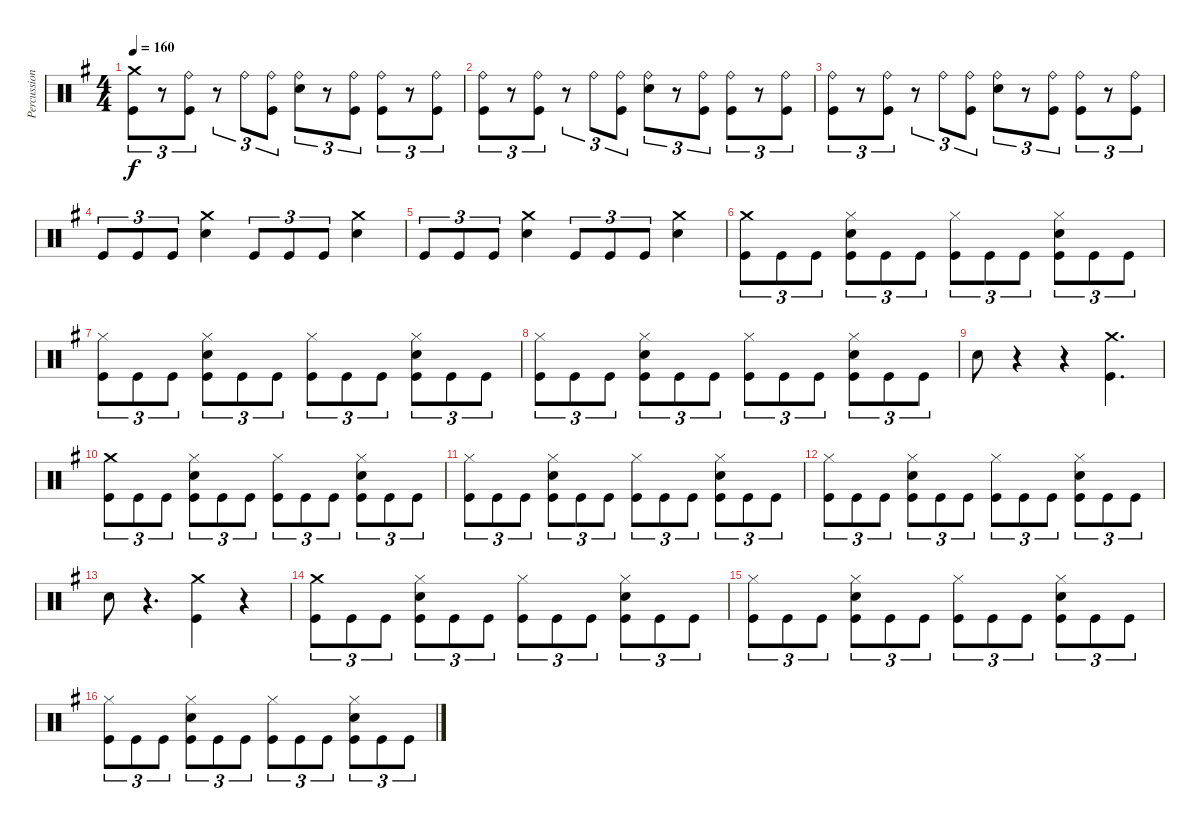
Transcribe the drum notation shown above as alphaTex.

\track ("Percussions" "Percussion") {instrument percussion}
\staff {score}
\articulation defaults
\ts (4 4)
\tempo 160
\clef neutral
\ks g
("Kick (hit)" "Crash medium (hit)").8{tu (3 2) dy f} r.8{tu (3 2)} ("Kick (hit)" "Ride (bell)").8{tu (3 2)} r.8{tu (3 2)} "Ride (bell)".8{tu (3 2)} ("Kick (hit)" "Ride (bell)").8{tu (3 2)} ("Electric Snare (hit)" "Ride (bell)").8{tu (3 2)} r.8{tu (3 2)} ("Kick (hit)" "Ride (bell)").8{tu (3 2)} ("Kick (hit)" "Ride (bell)").8{tu (3 2)} r.8{tu (3 2)} ("Kick (hit)" "Ride (bell)").8{tu (3 2)} |
("Kick (hit)" "Ride (bell)").8{tu (3 2)} r.8{tu (3 2)} ("Kick (hit)" "Ride (bell)").8{tu (3 2)} r.8{tu (3 2)} "Ride (bell)".8{tu (3 2)} ("Kick (hit)" "Ride (bell)").8{tu (3 2)} ("Electric Snare (hit)" "Ride (bell)").8{tu (3 2)} r.8{tu (3 2)} ("Kick (hit)" "Ride (bell)").8{tu (3 2)} ("Kick (hit)" "Ride (bell)").8{tu (3 2)} r.8{tu (3 2)} ("Kick (hit)" "Ride (bell)").8{tu (3 2)} |
("Kick (hit)" "Ride (bell)").8{tu (3 2)} r.8{tu (3 2)} ("Kick (hit)" "Ride (bell)").8{tu (3 2)} r.8{tu (3 2)} "Ride (bell)".8{tu (3 2)} ("Kick (hit)" "Ride (bell)").8{tu (3 2)} ("Electric Snare (hit)" "Ride (bell)").8{tu (3 2)} r.8{tu (3 2)} ("Kick (hit)" "Ride (bell)").8{tu (3 2)} ("Kick (hit)" "Ride (bell)").8{tu (3 2)} r.8{tu (3 2)} ("Kick (hit)" "Ride (bell)").8{tu (3 2)} |
"Kick (hit)".8{tu (3 2)} "Kick (hit)".8{tu (3 2)} "Kick (hit)".8{tu (3 2)} ("Electric Snare (hit)" "Crash medium (hit)").4 "Kick (hit)".8{tu (3 2)} "Kick (hit)".8{tu (3 2)} "Kick (hit)".8{tu (3 2)} ("Electric Snare (hit)" "Crash medium (hit)").4 |
"Kick (hit)".8{tu (3 2)} "Kick (hit)".8{tu (3 2)} "Kick (hit)".8{tu (3 2)} ("Electric Snare (hit)" "Crash medium (hit)").4 "Kick (hit)".8{tu (3 2)} "Kick (hit)".8{tu (3 2)} "Kick (hit)".8{tu (3 2)} ("Electric Snare (hit)" "Crash medium (hit)").4 |
("Kick (hit)" "Crash medium (hit)").8{tu (3 2)} "Kick (hit)".8{tu (3 2)} "Kick (hit)".8{tu (3 2)} ("Kick (hit)" "Electric Snare (hit)" "Hi-Hat (closed)").8{tu (3 2)} "Kick (hit)".8{tu (3 2)} "Kick (hit)".8{tu (3 2)} ("Kick (hit)" "Hi-Hat (closed)").8{tu (3 2)} "Kick (hit)".8{tu (3 2)} "Kick (hit)".8{tu (3 2)} ("Kick (hit)" "Electric Snare (hit)" "Hi-Hat (closed)").8{tu (3 2)} "Kick (hit)".8{tu (3 2)} "Kick (hit)".8{tu (3 2)} |
("Kick (hit)" "Hi-Hat (closed)").8{tu (3 2)} "Kick (hit)".8{tu (3 2)} "Kick (hit)".8{tu (3 2)} ("Kick (hit)" "Electric Snare (hit)" "Hi-Hat (closed)").8{tu (3 2)} "Kick (hit)".8{tu (3 2)} "Kick (hit)".8{tu (3 2)} ("Kick (hit)" "Hi-Hat (closed)").8{tu (3 2)} "Kick (hit)".8{tu (3 2)} "Kick (hit)".8{tu (3 2)} ("Kick (hit)" "Electric Snare (hit)" "Hi-Hat (closed)").8{tu (3 2)} "Kick (hit)".8{tu (3 2)} "Kick (hit)".8{tu (3 2)} |
("Kick (hit)" "Hi-Hat (closed)").8{tu (3 2)} "Kick (hit)".8{tu (3 2)} "Kick (hit)".8{tu (3 2)} ("Kick (hit)" "Electric Snare (hit)" "Hi-Hat (closed)").8{tu (3 2)} "Kick (hit)".8{tu (3 2)} "Kick (hit)".8{tu (3 2)} ("Kick (hit)" "Hi-Hat (closed)").8{tu (3 2)} "Kick (hit)".8{tu (3 2)} "Kick (hit)".8{tu (3 2)} ("Kick (hit)" "Electric Snare (hit)" "Hi-Hat (closed)").8{tu (3 2)} "Kick (hit)".8{tu (3 2)} "Kick (hit)".8{tu (3 2)} |
"Electric Snare (hit)".8 r.4 r.4 ("Kick (hit)" "Crash medium (hit)").4{d} |
("Kick (hit)" "Crash medium (hit)").8{tu (3 2)} "Kick (hit)".8{tu (3 2)} "Kick (hit)".8{tu (3 2)} ("Kick (hit)" "Electric Snare (hit)" "Hi-Hat (closed)").8{tu (3 2)} "Kick (hit)".8{tu (3 2)} "Kick (hit)".8{tu (3 2)} ("Kick (hit)" "Hi-Hat (closed)").8{tu (3 2)} "Kick (hit)".8{tu (3 2)} "Kick (hit)".8{tu (3 2)} ("Kick (hit)" "Electric Snare (hit)" "Hi-Hat (closed)").8{tu (3 2)} "Kick (hit)".8{tu (3 2)} "Kick (hit)".8{tu (3 2)} |
("Kick (hit)" "Hi-Hat (closed)").8{tu (3 2)} "Kick (hit)".8{tu (3 2)} "Kick (hit)".8{tu (3 2)} ("Kick (hit)" "Electric Snare (hit)" "Hi-Hat (closed)").8{tu (3 2)} "Kick (hit)".8{tu (3 2)} "Kick (hit)".8{tu (3 2)} ("Kick (hit)" "Hi-Hat (closed)").8{tu (3 2)} "Kick (hit)".8{tu (3 2)} "Kick (hit)".8{tu (3 2)} ("Kick (hit)" "Electric Snare (hit)" "Hi-Hat (closed)").8{tu (3 2)} "Kick (hit)".8{tu (3 2)} "Kick (hit)".8{tu (3 2)} |
("Kick (hit)" "Hi-Hat (closed)").8{tu (3 2)} "Kick (hit)".8{tu (3 2)} "Kick (hit)".8{tu (3 2)} ("Kick (hit)" "Electric Snare (hit)" "Hi-Hat (closed)").8{tu (3 2)} "Kick (hit)".8{tu (3 2)} "Kick (hit)".8{tu (3 2)} ("Kick (hit)" "Hi-Hat (closed)").8{tu (3 2)} "Kick (hit)".8{tu (3 2)} "Kick (hit)".8{tu (3 2)} ("Kick (hit)" "Electric Snare (hit)" "Hi-Hat (closed)").8{tu (3 2)} "Kick (hit)".8{tu (3 2)} "Kick (hit)".8{tu (3 2)} |
"Electric Snare (hit)".8 r.4{d} ("Kick (hit)" "Crash medium (hit)").4 r.4 |
("Kick (hit)" "Crash medium (hit)").8{tu (3 2)} "Kick (hit)".8{tu (3 2)} "Kick (hit)".8{tu (3 2)} ("Kick (hit)" "Electric Snare (hit)" "Hi-Hat (closed)").8{tu (3 2)} "Kick (hit)".8{tu (3 2)} "Kick (hit)".8{tu (3 2)} ("Kick (hit)" "Hi-Hat (closed)").8{tu (3 2)} "Kick (hit)".8{tu (3 2)} "Kick (hit)".8{tu (3 2)} ("Kick (hit)" "Electric Snare (hit)" "Hi-Hat (closed)").8{tu (3 2)} "Kick (hit)".8{tu (3 2)} "Kick (hit)".8{tu (3 2)} |
("Kick (hit)" "Hi-Hat (closed)").8{tu (3 2)} "Kick (hit)".8{tu (3 2)} "Kick (hit)".8{tu (3 2)} ("Kick (hit)" "Electric Snare (hit)" "Hi-Hat (closed)").8{tu (3 2)} "Kick (hit)".8{tu (3 2)} "Kick (hit)".8{tu (3 2)} ("Kick (hit)" "Hi-Hat (closed)").8{tu (3 2)} "Kick (hit)".8{tu (3 2)} "Kick (hit)".8{tu (3 2)} ("Kick (hit)" "Electric Snare (hit)" "Hi-Hat (closed)").8{tu (3 2)} "Kick (hit)".8{tu (3 2)} "Kick (hit)".8{tu (3 2)} |
("Kick (hit)" "Hi-Hat (closed)").8{tu (3 2)} "Kick (hit)".8{tu (3 2)} "Kick (hit)".8{tu (3 2)} ("Kick (hit)" "Electric Snare (hit)" "Hi-Hat (closed)").8{tu (3 2)} "Kick (hit)".8{tu (3 2)} "Kick (hit)".8{tu (3 2)} ("Kick (hit)" "Hi-Hat (closed)").8{tu (3 2)} "Kick (hit)".8{tu (3 2)} "Kick (hit)".8{tu (3 2)} ("Kick (hit)" "Electric Snare (hit)" "Hi-Hat (closed)").8{tu (3 2)} "Kick (hit)".8{tu (3 2)} "Kick (hit)".8{tu (3 2)}
